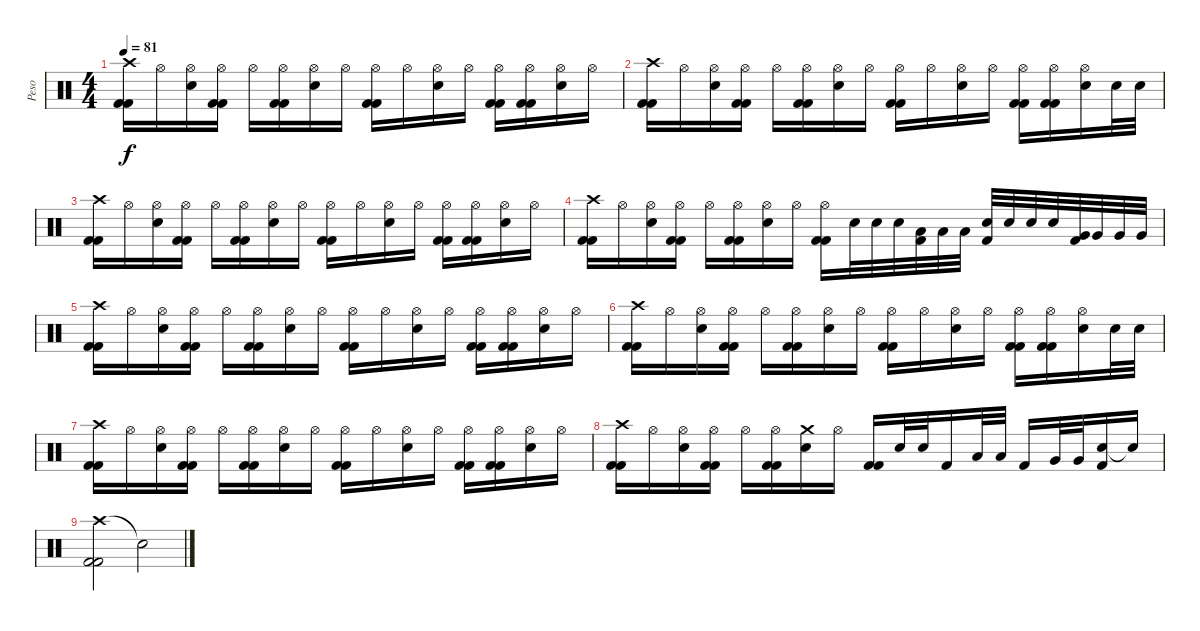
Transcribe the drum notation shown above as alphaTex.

\track ("Peso" "Peso") {instrument percussion}
\staff {score}
\articulation defaults
\ts (4 4)
\tempo 81
\clef neutral
\ks c
("Crash high (hit)" "Kick (hit) 2" "Kick (hit) 2").16{dy f} "Hi-Hat (open)".16 ("Hi-Hat (open)" "Electric Snare (hit)").16 ("Hi-Hat (open)" "Kick (hit) 2" "Kick (hit) 2").16 "Hi-Hat (open)".16 ("Hi-Hat (open)" "Kick (hit) 2" "Kick (hit) 2").16 ("Hi-Hat (open)" "Electric Snare (hit)").16 "Hi-Hat (open)".16 ("Hi-Hat (open)" "Kick (hit) 2" "Kick (hit) 2").16 "Hi-Hat (open)".16 ("Hi-Hat (open)" "Electric Snare (hit)").16 "Hi-Hat (open)".16 ("Hi-Hat (open)" "Kick (hit) 2" "Kick (hit) 2").16 ("Hi-Hat (open)" "Kick (hit) 2" "Kick (hit) 2").16 ("Hi-Hat (open)" "Electric Snare (hit)").16 "Hi-Hat (open)".16 |
("Crash high (hit)" "Kick (hit) 2" "Kick (hit) 2").16 "Hi-Hat (open)".16 ("Hi-Hat (open)" "Electric Snare (hit)").16 ("Hi-Hat (open)" "Kick (hit) 2" "Kick (hit) 2").16 "Hi-Hat (open)".16 ("Hi-Hat (open)" "Kick (hit) 2" "Kick (hit) 2").16 ("Hi-Hat (open)" "Electric Snare (hit)").16 "Hi-Hat (open)".16 ("Hi-Hat (open)" "Kick (hit) 2" "Kick (hit) 2").16 "Hi-Hat (open)".16 ("Hi-Hat (open)" "Electric Snare (hit)").16 "Hi-Hat (open)".16 ("Hi-Hat (open)" "Kick (hit) 2" "Kick (hit) 2").16 ("Hi-Hat (open)" "Kick (hit) 2" "Kick (hit) 2").16 ("Hi-Hat (open)" "Electric Snare (hit)").16 "Electric Snare (hit)".32 "Electric Snare (hit)".32 |
("Crash high (hit)" "Kick (hit) 2" "Kick (hit) 2").16 "Hi-Hat (open)".16 ("Hi-Hat (open)" "Electric Snare (hit)").16 ("Hi-Hat (open)" "Kick (hit) 2" "Kick (hit) 2").16 "Hi-Hat (open)".16 ("Hi-Hat (open)" "Kick (hit) 2" "Kick (hit) 2").16 ("Hi-Hat (open)" "Electric Snare (hit)").16 "Hi-Hat (open)".16 ("Hi-Hat (open)" "Kick (hit) 2" "Kick (hit) 2").16 "Hi-Hat (open)".16 ("Hi-Hat (open)" "Electric Snare (hit)").16 "Hi-Hat (open)".16 ("Hi-Hat (open)" "Kick (hit) 2" "Kick (hit) 2").16 ("Hi-Hat (open)" "Kick (hit) 2" "Kick (hit) 2").16 ("Hi-Hat (open)" "Electric Snare (hit)").16 "Hi-Hat (open)".16 |
("Crash high (hit)" "Kick (hit) 2" "Kick (hit) 2").16 "Hi-Hat (open)".16 ("Hi-Hat (open)" "Electric Snare (hit)").16 ("Hi-Hat (open)" "Kick (hit) 2" "Kick (hit) 2").16 "Hi-Hat (open)".16 ("Hi-Hat (open)" "Kick (hit) 2" "Kick (hit) 2").16 ("Hi-Hat (open)" "Electric Snare (hit)").16 "Hi-Hat (open)".16 ("Hi-Hat (open)" "Kick (hit) 2" "Kick (hit) 2").16 "Electric Snare (hit)".32 "Electric Snare (hit)".32 "Electric Snare (hit)".32 ("Low Tom (hit)" "Kick (hit) 2").32 "Low Tom (hit)".32 "Low Tom (hit)".32 ("Electric Snare (hit)" "Kick (hit) 2").32 "Electric Snare (hit)".32 "Electric Snare (hit)".32 "Electric Snare (hit)".32 ("Very Low Tom (hit)" "Kick (hit) 2").32 "Very Low Tom (hit)".32 "Very Low Tom (hit)".32 "Very Low Tom (hit)".32 |
("Crash high (hit)" "Kick (hit) 2" "Kick (hit) 2").16 "Hi-Hat (open)".16 ("Hi-Hat (open)" "Electric Snare (hit)").16 ("Hi-Hat (open)" "Kick (hit) 2" "Kick (hit) 2").16 "Hi-Hat (open)".16 ("Hi-Hat (open)" "Kick (hit) 2" "Kick (hit) 2").16 ("Hi-Hat (open)" "Electric Snare (hit)").16 "Hi-Hat (open)".16 ("Hi-Hat (open)" "Kick (hit) 2" "Kick (hit) 2").16 "Hi-Hat (open)".16 ("Hi-Hat (open)" "Electric Snare (hit)").16 "Hi-Hat (open)".16 ("Hi-Hat (open)" "Kick (hit) 2" "Kick (hit) 2").16 ("Hi-Hat (open)" "Kick (hit) 2" "Kick (hit) 2").16 ("Hi-Hat (open)" "Electric Snare (hit)").16 "Hi-Hat (open)".16 |
("Crash high (hit)" "Kick (hit) 2" "Kick (hit) 2").16 "Hi-Hat (open)".16 ("Hi-Hat (open)" "Electric Snare (hit)").16 ("Hi-Hat (open)" "Kick (hit) 2" "Kick (hit) 2").16 "Hi-Hat (open)".16 ("Hi-Hat (open)" "Kick (hit) 2" "Kick (hit) 2").16 ("Hi-Hat (open)" "Electric Snare (hit)").16 "Hi-Hat (open)".16 ("Hi-Hat (open)" "Kick (hit) 2" "Kick (hit) 2").16 "Hi-Hat (open)".16 ("Hi-Hat (open)" "Electric Snare (hit)").16 "Hi-Hat (open)".16 ("Hi-Hat (open)" "Kick (hit) 2" "Kick (hit) 2").16 ("Hi-Hat (open)" "Kick (hit) 2" "Kick (hit) 2").16 ("Hi-Hat (open)" "Electric Snare (hit)").16 "Electric Snare (hit)".32 "Electric Snare (hit)".32 |
("Crash high (hit)" "Kick (hit) 2" "Kick (hit) 2").16 "Hi-Hat (open)".16 ("Hi-Hat (open)" "Electric Snare (hit)").16 ("Hi-Hat (open)" "Kick (hit) 2" "Kick (hit) 2").16 "Hi-Hat (open)".16 ("Hi-Hat (open)" "Kick (hit) 2" "Kick (hit) 2").16 ("Hi-Hat (open)" "Electric Snare (hit)").16 "Hi-Hat (open)".16 ("Hi-Hat (open)" "Kick (hit) 2" "Kick (hit) 2").16 "Hi-Hat (open)".16 ("Hi-Hat (open)" "Electric Snare (hit)").16 "Hi-Hat (open)".16 ("Hi-Hat (open)" "Kick (hit) 2" "Kick (hit) 2").16 ("Hi-Hat (open)" "Kick (hit) 2" "Kick (hit) 2").16 ("Hi-Hat (open)" "Electric Snare (hit)").16 "Hi-Hat (open)".16 |
("Crash high (hit)" "Kick (hit) 2" "Kick (hit) 2").16 "Hi-Hat (open)".16 ("Hi-Hat (open)" "Electric Snare (hit)").16 ("Hi-Hat (open)" "Kick (hit) 2" "Kick (hit) 2").16 "Hi-Hat (open)".16 ("Hi-Hat (open)" "Kick (hit) 2" "Kick (hit) 2").16 ("Crash medium (hit)" "Electric Snare (hit)").16 "Hi-Hat (open)".16 ("Kick (hit) 2" "Kick (hit) 2").16 "Electric Snare (hit)".32 "Electric Snare (hit)".32 "Kick (hit) 2".16 "Low Tom (hit)".32 "Low Tom (hit)".32 "Kick (hit) 2".16 "Very Low Tom (hit)".32 "Very Low Tom (hit)".32 ("Electric Snare (hit)" "Kick (hit) 2").16 "Snare (hit)"{t}.16 |
("Crash high (hit)" "Kick (hit) 2" "Kick (hit) 2").2 "Snare (hit)"{t}.2
